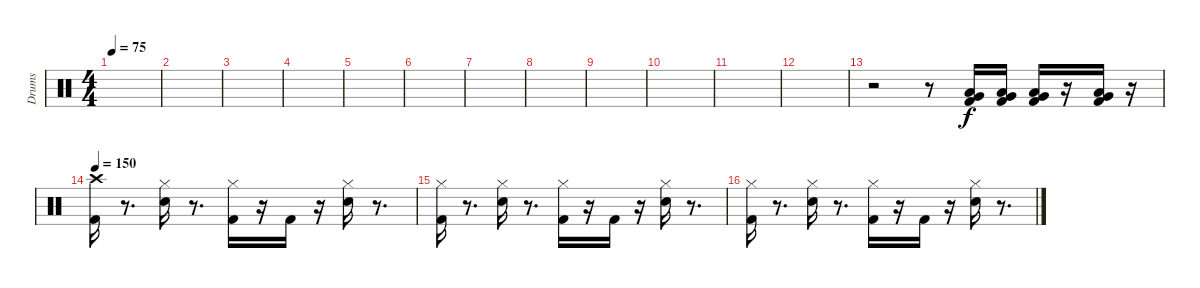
\track ("Drums" "Drums") {instrument percussion}
\staff {score}
\articulation defaults
\ts (4 4)
\tempo 75
\clef neutral
\ks c
|
|
|
|
|
|
|
|
|
|
|
|
r.2 r.8 ("Very Low Tom (hit)" "Low Floor Tom (hit)" "Kick (hit) 2").16 ("Very Low Tom (hit)" "Low Floor Tom (hit)" "Kick (hit) 2").16 ("Very Low Tom (hit)" "Low Floor Tom (hit)" "Kick (hit) 2").16 r.16 ("Very Low Tom (hit)" "Low Floor Tom (hit)" "Kick (hit) 2").16 r.16 |
\tempo 150
("Crash high (hit)" "Kick (hit) 2").16 r.8{d} ("Hi-Hat (closed)" "Electric Snare (hit)").16 r.8{d} ("Hi-Hat (closed)" "Kick (hit) 2").16 r.16 "Kick (hit) 2".16 r.16 ("Hi-Hat (closed)" "Electric Snare (hit)").16 r.8{d} |
("Hi-Hat (closed)" "Kick (hit) 2").16 r.8{d} ("Hi-Hat (closed)" "Electric Snare (hit)").16 r.8{d} ("Hi-Hat (closed)" "Kick (hit) 2").16 r.16 "Kick (hit) 2".16 r.16 ("Hi-Hat (closed)" "Electric Snare (hit)").16 r.8{d} |
("Hi-Hat (closed)" "Kick (hit) 2").16 r.8{d} ("Hi-Hat (closed)" "Electric Snare (hit)").16 r.8{d} ("Hi-Hat (closed)" "Kick (hit) 2").16 r.16 "Kick (hit) 2".16 r.16 ("Hi-Hat (closed)" "Electric Snare (hit)").16 r.8{d}
